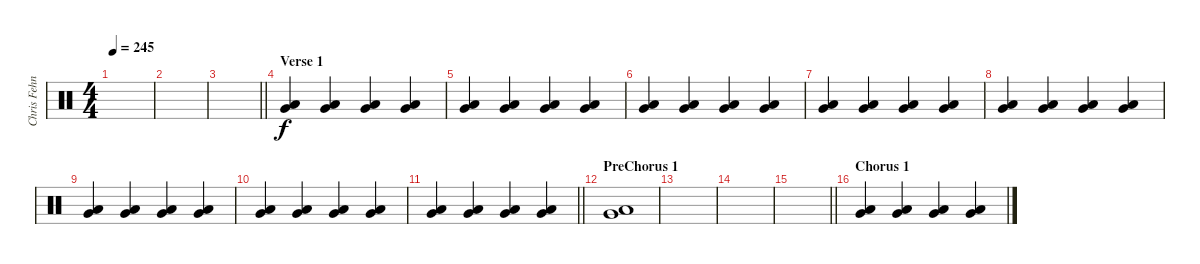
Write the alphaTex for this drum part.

\track ("Chris Fehn" "Chris Fehn") {instrument percussion}
\staff {score}
\articulation defaults
\ts (4 4)
\tempo 245
\clef neutral
\ks c
|
|
\barLineRight lightlight
|
\section ("" "Verse 1")
("Very Low Tom (hit)" "Low Floor Tom (hit)").4 ("Very Low Tom (hit)" "Low Floor Tom (hit)").4 ("Very Low Tom (hit)" "Low Floor Tom (hit)").4 ("Very Low Tom (hit)" "Low Floor Tom (hit)").4 |
("Very Low Tom (hit)" "Low Floor Tom (hit)").4 ("Very Low Tom (hit)" "Low Floor Tom (hit)").4 ("Very Low Tom (hit)" "Low Floor Tom (hit)").4 ("Very Low Tom (hit)" "Low Floor Tom (hit)").4 |
("Very Low Tom (hit)" "Low Floor Tom (hit)").4 ("Very Low Tom (hit)" "Low Floor Tom (hit)").4 ("Very Low Tom (hit)" "Low Floor Tom (hit)").4 ("Very Low Tom (hit)" "Low Floor Tom (hit)").4 |
("Very Low Tom (hit)" "Low Floor Tom (hit)").4 ("Very Low Tom (hit)" "Low Floor Tom (hit)").4 ("Very Low Tom (hit)" "Low Floor Tom (hit)").4 ("Very Low Tom (hit)" "Low Floor Tom (hit)").4 |
("Very Low Tom (hit)" "Low Floor Tom (hit)").4 ("Very Low Tom (hit)" "Low Floor Tom (hit)").4 ("Very Low Tom (hit)" "Low Floor Tom (hit)").4 ("Very Low Tom (hit)" "Low Floor Tom (hit)").4 |
("Very Low Tom (hit)" "Low Floor Tom (hit)").4 ("Very Low Tom (hit)" "Low Floor Tom (hit)").4 ("Very Low Tom (hit)" "Low Floor Tom (hit)").4 ("Very Low Tom (hit)" "Low Floor Tom (hit)").4 |
("Very Low Tom (hit)" "Low Floor Tom (hit)").4 ("Very Low Tom (hit)" "Low Floor Tom (hit)").4 ("Very Low Tom (hit)" "Low Floor Tom (hit)").4 ("Very Low Tom (hit)" "Low Floor Tom (hit)").4 |
\barLineRight lightlight
("Very Low Tom (hit)" "Low Floor Tom (hit)").4 ("Very Low Tom (hit)" "Low Floor Tom (hit)").4 ("Very Low Tom (hit)" "Low Floor Tom (hit)").4 ("Very Low Tom (hit)" "Low Floor Tom (hit)").4 |
\section ("" "PreChorus 1")
("Very Low Tom (hit)" "Low Floor Tom (hit)").1 |
|
|
\barLineRight lightlight
|
\section ("" "Chorus 1")
("Very Low Tom (hit)" "Low Floor Tom (hit)").4 ("Very Low Tom (hit)" "Low Floor Tom (hit)").4 ("Very Low Tom (hit)" "Low Floor Tom (hit)").4 ("Very Low Tom (hit)" "Low Floor Tom (hit)").4
